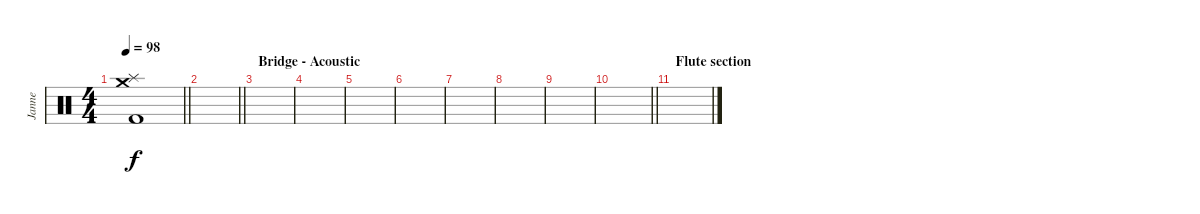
\track ("Janne" "Janne") {instrument percussion}
\staff {score}
\articulation defaults
\ts (4 4)
\tempo 98
\clef neutral
\barLineRight lightlight
\ks c
("Kick (hit) 2" "Splash (hit)" "Crash medium (hit)").1{dy f} |
\barLineRight lightlight
|
\section ("" "Bridge - Acoustic")
|
|
|
|
|
|
|
\barLineRight lightlight
|
\section ("" "Flute section")
